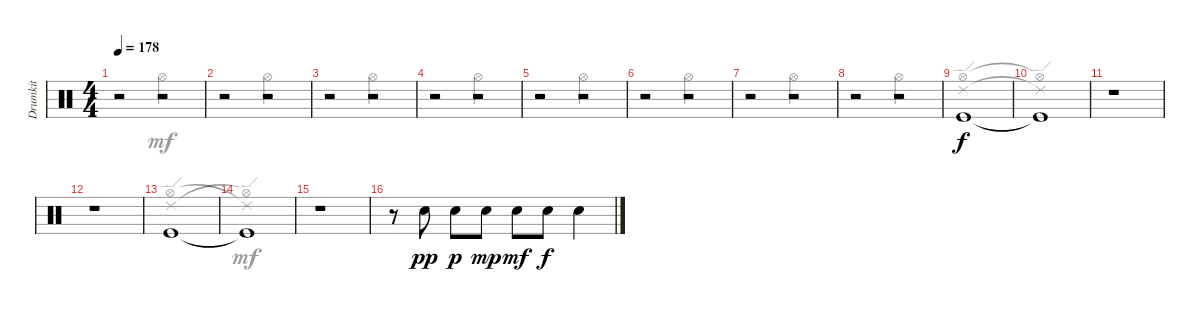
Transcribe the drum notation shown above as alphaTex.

\track ("Drumkit" "Drumkit") {instrument percussion}
\staff {score}
\articulation defaults
\voice
\ts (4 4)
\section ("" "")
\tempo 178
\clef neutral
\ks c
r.2{dy f} r.2 |
r.2 r.2 |
r.2 r.2 |
r.2 r.2 |
r.2 r.2 |
r.2 r.2 |
r.2 r.2 |
r.2 r.2 |
"Kick (hit)".1 |
"Kick (hit)"{t}.1 |
r.1 |
r.1 |
"Kick (hit)".1 |
"Kick (hit)"{t}.1 |
r.1 |
r.8 "Snare (hit) 2".8{dy pp} "Snare (hit) 2".8{dy p} "Snare (hit) 2".8{dy mp} "Snare (hit) 2".8{dy mf} "Snare (hit) 2".8{dy f} "Snare (hit) 2".4
\voice
\clef neutral
\ottava regular
\simile none
\ks c
r.2{dy mf} "Hi-Hat (open)".2 |
r.2 "Hi-Hat (open)".2 |
r.2 "Hi-Hat (open)".2 |
r.2 "Hi-Hat (open)".2 |
r.2 "Hi-Hat (open)".2 |
r.2 "Hi-Hat (open)".2 |
r.2 "Hi-Hat (open)".2 |
r.2 "Hi-Hat (open)".2 |
("Hi-Hat (open)" "Ride (edge) 2").1{dy f} |
("Hi-Hat (open)"{t} "Ride (edge) 2"{t}).1 |
|
|
("Hi-Hat (open)" "Ride (edge) 2").1 |
("Ride (edge) 2"{t} "Hi-Hat (open)"{t}).1{dy mf} |
|
